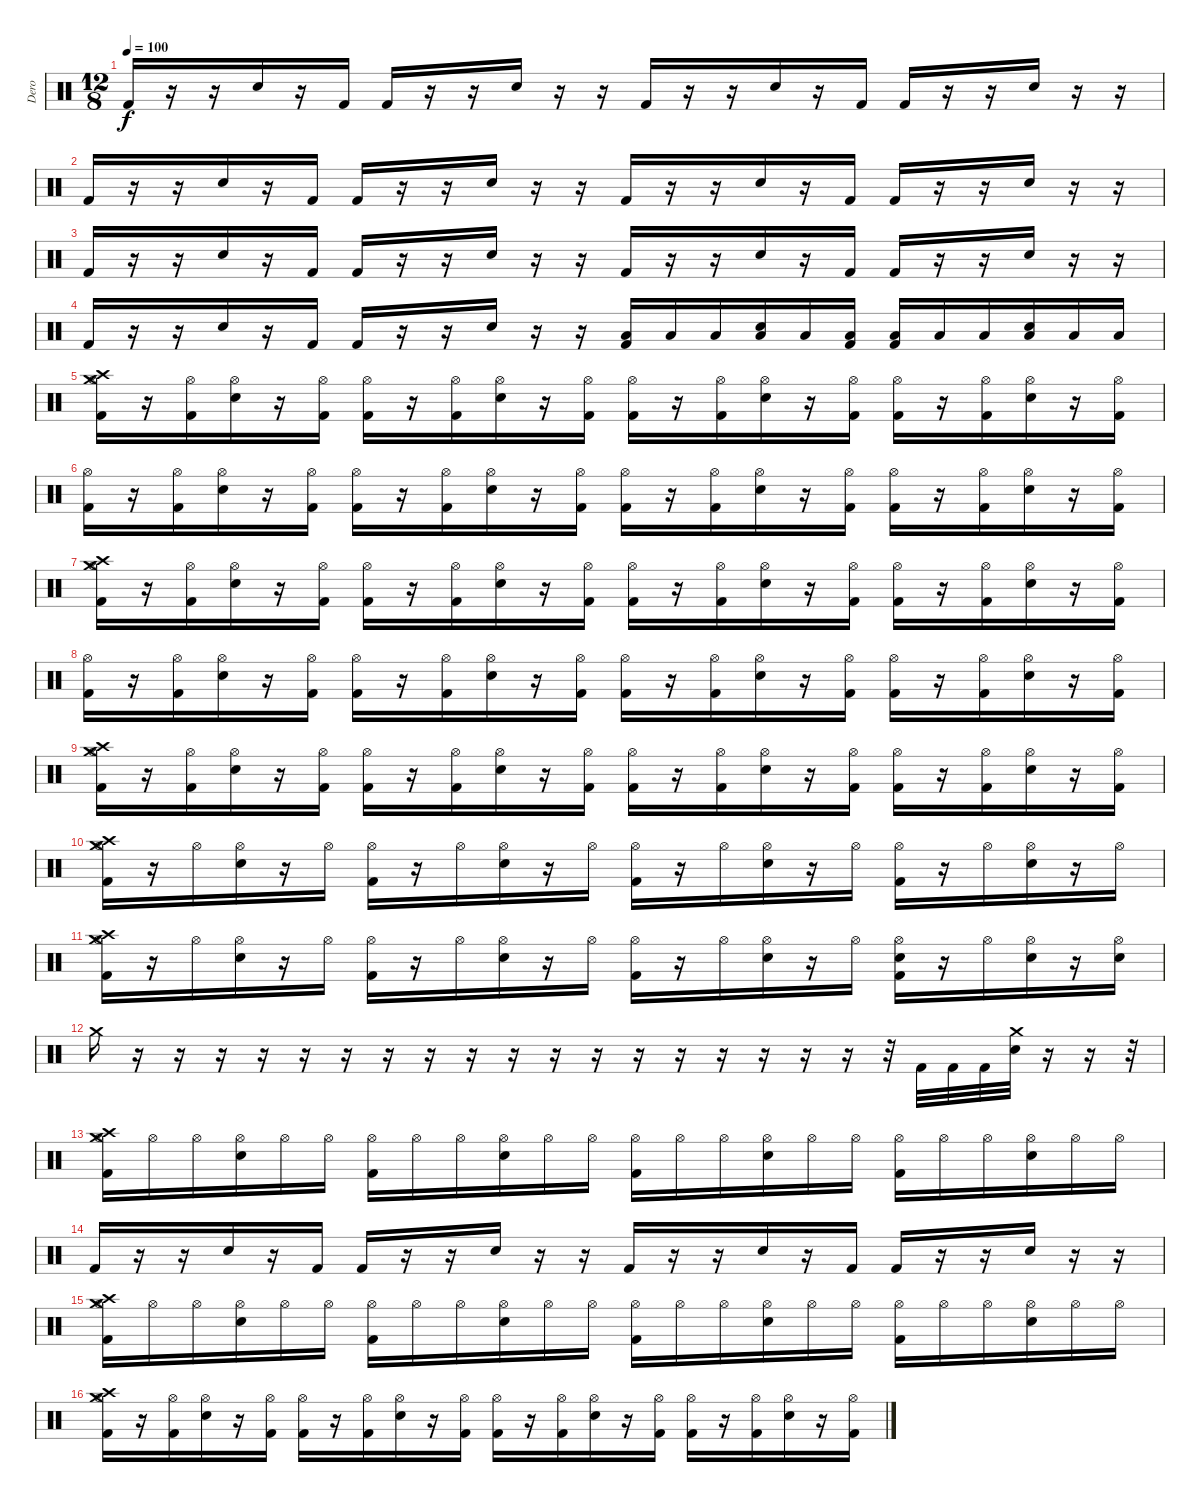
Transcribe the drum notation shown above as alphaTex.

\track ("Dero" "Dero") {instrument percussion}
\staff {score}
\articulation defaults
\ts (12 8)
\tempo 100
\clef neutral
\ks c "Kick (hit) 2".16{dy f}
r.16 r.16 "Snare (hit) 2".16 r.16 "Kick (hit) 2".16 "Kick (hit) 2".16 r.16 r.16 "Snare (hit) 2".16 r.16 r.16 "Kick (hit) 2".16 r.16 r.16 "Snare (hit) 2".16 r.16 "Kick (hit) 2".16 "Kick (hit) 2".16 r.16 r.16 "Snare (hit) 2".16 r.16 r.16 |
"Kick (hit) 2".16 r.16 r.16 "Snare (hit) 2".16 r.16 "Kick (hit) 2".16 "Kick (hit) 2".16 r.16 r.16 "Snare (hit) 2".16 r.16 r.16 "Kick (hit) 2".16 r.16 r.16 "Snare (hit) 2".16 r.16 "Kick (hit) 2".16 "Kick (hit) 2".16 r.16 r.16 "Snare (hit) 2".16 r.16 r.16 |
"Kick (hit) 2".16 r.16 r.16 "Snare (hit) 2".16 r.16 "Kick (hit) 2".16 "Kick (hit) 2".16 r.16 r.16 "Snare (hit) 2".16 r.16 r.16 "Kick (hit) 2".16 r.16 r.16 "Snare (hit) 2".16 r.16 "Kick (hit) 2".16 "Kick (hit) 2".16 r.16 r.16 "Snare (hit) 2".16 r.16 r.16 |
"Kick (hit) 2".16 r.16 r.16 "Snare (hit) 2".16 r.16 "Kick (hit) 2".16 "Kick (hit) 2".16 r.16 r.16 "Snare (hit) 2".16 r.16 r.16 ("Low Tom (hit)" "Kick (hit) 2").16 "Low Tom (hit)".16 "Low Tom (hit)".16 ("Low Tom (hit)" "Snare (hit) 2").16 "Low Tom (hit)".16 ("Low Tom (hit)" "Kick (hit) 2").16 ("Low Tom (hit)" "Kick (hit) 2").16 "Low Tom (hit)".16 "Low Tom (hit)".16 ("Low Tom (hit)" "Snare (hit) 2").16 "Low Tom (hit)".16 "Low Tom (hit)".16 |
("Crash high (hit)" "Hi-Hat (open)" "Crash medium (hit)" "Kick (hit) 2").16{volume 16} r.16 ("Hi-Hat (open)" "Kick (hit) 2").16 ("Hi-Hat (open)" "Snare (hit) 2").16 r.16 ("Hi-Hat (open)" "Kick (hit) 2").16 ("Hi-Hat (open)" "Kick (hit) 2").16 r.16 ("Hi-Hat (open)" "Kick (hit) 2").16 ("Hi-Hat (open)" "Snare (hit) 2").16 r.16 ("Hi-Hat (open)" "Kick (hit) 2").16 ("Hi-Hat (open)" "Kick (hit) 2").16 r.16 ("Hi-Hat (open)" "Kick (hit) 2").16 ("Hi-Hat (open)" "Snare (hit) 2").16 r.16 ("Hi-Hat (open)" "Kick (hit) 2").16 ("Hi-Hat (open)" "Kick (hit) 2").16 r.16 ("Hi-Hat (open)" "Kick (hit) 2").16 ("Hi-Hat (open)" "Snare (hit) 2").16 r.16 ("Hi-Hat (open)" "Kick (hit) 2").16 |
("Hi-Hat (open)" "Kick (hit) 2").16{volume 16} r.16 ("Hi-Hat (open)" "Kick (hit) 2").16 ("Hi-Hat (open)" "Snare (hit) 2").16 r.16 ("Hi-Hat (open)" "Kick (hit) 2").16 ("Hi-Hat (open)" "Kick (hit) 2").16 r.16 ("Hi-Hat (open)" "Kick (hit) 2").16 ("Hi-Hat (open)" "Snare (hit) 2").16 r.16 ("Hi-Hat (open)" "Kick (hit) 2").16 ("Hi-Hat (open)" "Kick (hit) 2").16 r.16 ("Hi-Hat (open)" "Kick (hit) 2").16 ("Hi-Hat (open)" "Snare (hit) 2").16 r.16 ("Hi-Hat (open)" "Kick (hit) 2").16 ("Hi-Hat (open)" "Kick (hit) 2").16 r.16 ("Hi-Hat (open)" "Kick (hit) 2").16 ("Hi-Hat (open)" "Snare (hit) 2").16 r.16 ("Hi-Hat (open)" "Kick (hit) 2").16 |
("Crash high (hit)" "Hi-Hat (open)" "Crash medium (hit)" "Kick (hit) 2").16{volume 16} r.16 ("Hi-Hat (open)" "Kick (hit) 2").16 ("Hi-Hat (open)" "Snare (hit) 2").16 r.16 ("Hi-Hat (open)" "Kick (hit) 2").16 ("Hi-Hat (open)" "Kick (hit) 2").16 r.16 ("Hi-Hat (open)" "Kick (hit) 2").16 ("Hi-Hat (open)" "Snare (hit) 2").16 r.16 ("Hi-Hat (open)" "Kick (hit) 2").16 ("Hi-Hat (open)" "Kick (hit) 2").16 r.16 ("Hi-Hat (open)" "Kick (hit) 2").16 ("Hi-Hat (open)" "Snare (hit) 2").16 r.16 ("Hi-Hat (open)" "Kick (hit) 2").16 ("Hi-Hat (open)" "Kick (hit) 2").16 r.16 ("Hi-Hat (open)" "Kick (hit) 2").16 ("Hi-Hat (open)" "Snare (hit) 2").16 r.16 ("Hi-Hat (open)" "Kick (hit) 2").16 |
("Hi-Hat (open)" "Kick (hit) 2").16{volume 16} r.16 ("Hi-Hat (open)" "Kick (hit) 2").16 ("Hi-Hat (open)" "Snare (hit) 2").16 r.16 ("Hi-Hat (open)" "Kick (hit) 2").16 ("Hi-Hat (open)" "Kick (hit) 2").16 r.16 ("Hi-Hat (open)" "Kick (hit) 2").16 ("Hi-Hat (open)" "Snare (hit) 2").16 r.16 ("Hi-Hat (open)" "Kick (hit) 2").16 ("Hi-Hat (open)" "Kick (hit) 2").16 r.16 ("Hi-Hat (open)" "Kick (hit) 2").16 ("Hi-Hat (open)" "Snare (hit) 2").16 r.16 ("Hi-Hat (open)" "Kick (hit) 2").16 ("Hi-Hat (open)" "Kick (hit) 2").16 r.16 ("Hi-Hat (open)" "Kick (hit) 2").16 ("Hi-Hat (open)" "Snare (hit) 2").16 r.16 ("Hi-Hat (open)" "Kick (hit) 2").16 |
("Crash high (hit)" "Hi-Hat (open)" "Crash medium (hit)" "Kick (hit) 2").16{volume 16} r.16 ("Hi-Hat (open)" "Kick (hit) 2").16 ("Hi-Hat (open)" "Snare (hit) 2").16 r.16 ("Hi-Hat (open)" "Kick (hit) 2").16 ("Hi-Hat (open)" "Kick (hit) 2").16 r.16 ("Hi-Hat (open)" "Kick (hit) 2").16 ("Hi-Hat (open)" "Snare (hit) 2").16 r.16 ("Hi-Hat (open)" "Kick (hit) 2").16 ("Hi-Hat (open)" "Kick (hit) 2").16 r.16 ("Hi-Hat (open)" "Kick (hit) 2").16 ("Hi-Hat (open)" "Snare (hit) 2").16 r.16 ("Hi-Hat (open)" "Kick (hit) 2").16 ("Hi-Hat (open)" "Kick (hit) 2").16 r.16 ("Hi-Hat (open)" "Kick (hit) 2").16 ("Hi-Hat (open)" "Snare (hit) 2").16 r.16 ("Hi-Hat (open)" "Kick (hit) 2").16 |
("Crash medium (hit)" "Crash high (hit)" "Hi-Hat (open)" "Kick (hit) 2").16 r.16 "Hi-Hat (open)".16 ("Hi-Hat (open)" "Snare (hit) 2").16 r.16 "Hi-Hat (open)".16 ("Hi-Hat (open)" "Kick (hit) 2").16 r.16 "Hi-Hat (open)".16 ("Hi-Hat (open)" "Snare (hit) 2").16 r.16 "Hi-Hat (open)".16 ("Hi-Hat (open)" "Kick (hit) 2").16 r.16 "Hi-Hat (open)".16 ("Hi-Hat (open)" "Snare (hit) 2").16 r.16 "Hi-Hat (open)".16 ("Hi-Hat (open)" "Kick (hit) 2").16 r.16 "Hi-Hat (open)".16 ("Hi-Hat (open)" "Snare (hit) 2").16 r.16 "Hi-Hat (open)".16 |
("Crash medium (hit)" "Crash high (hit)" "Hi-Hat (open)" "Kick (hit) 2").16 r.16 "Hi-Hat (open)".16 ("Hi-Hat (open)" "Snare (hit) 2").16 r.16 "Hi-Hat (open)".16 ("Hi-Hat (open)" "Kick (hit) 2").16 r.16 "Hi-Hat (open)".16 ("Hi-Hat (open)" "Snare (hit) 2").16 r.16 "Hi-Hat (open)".16 ("Hi-Hat (open)" "Kick (hit) 2").16 r.16 "Hi-Hat (open)".16 ("Hi-Hat (open)" "Snare (hit) 2").16 r.16 "Hi-Hat (open)".16 ("Hi-Hat (open)" "Snare (hit) 2" "Kick (hit) 2").16 r.16 "Hi-Hat (open)".16 ("Hi-Hat (open)" "Snare (hit) 2").16 r.16 ("Hi-Hat (open)" "Snare (hit) 2").16 |
"Crash medium (hit)".16 r.16 r.16 r.16 r.16 r.16 r.16 r.16 r.16 r.16 r.16 r.16 r.16 r.16 r.16 r.16 r.16 r.16 r.16 r.32 "Kick (hit) 2".32 "Kick (hit) 2".32 "Kick (hit) 2".32 ("Crash medium (hit)" "Snare (hit) 2").32 r.16 r.16 r.32 |
("Crash medium (hit)" "Crash high (hit)" "Hi-Hat (open)" "Kick (hit) 2").16 "Hi-Hat (open)".16 "Hi-Hat (open)".16 ("Hi-Hat (open)" "Snare (hit) 2").16 "Hi-Hat (open)".16 "Hi-Hat (open)".16 ("Hi-Hat (open)" "Kick (hit) 2").16 "Hi-Hat (open)".16 "Hi-Hat (open)".16 ("Hi-Hat (open)" "Snare (hit) 2").16 "Hi-Hat (open)".16 "Hi-Hat (open)".16 ("Hi-Hat (open)" "Kick (hit) 2").16 "Hi-Hat (open)".16 "Hi-Hat (open)".16 ("Hi-Hat (open)" "Snare (hit) 2").16 "Hi-Hat (open)".16 "Hi-Hat (open)".16 ("Hi-Hat (open)" "Kick (hit) 2").16 "Hi-Hat (open)".16 "Hi-Hat (open)".16 ("Hi-Hat (open)" "Snare (hit) 2").16 "Hi-Hat (open)".16 "Hi-Hat (open)".16 |
"Kick (hit) 2".16 r.16 r.16 "Snare (hit) 2".16 r.16 "Kick (hit) 2".16 "Kick (hit) 2".16 r.16 r.16 "Snare (hit) 2".16 r.16 r.16 "Kick (hit) 2".16 r.16 r.16 "Snare (hit) 2".16 r.16 "Kick (hit) 2".16 "Kick (hit) 2".16 r.16 r.16 "Snare (hit) 2".16 r.16 r.16 |
("Crash medium (hit)" "Crash high (hit)" "Hi-Hat (open)" "Kick (hit) 2").16 "Hi-Hat (open)".16 "Hi-Hat (open)".16 ("Hi-Hat (open)" "Snare (hit) 2").16 "Hi-Hat (open)".16 "Hi-Hat (open)".16 ("Hi-Hat (open)" "Kick (hit) 2").16 "Hi-Hat (open)".16 "Hi-Hat (open)".16 ("Hi-Hat (open)" "Snare (hit) 2").16 "Hi-Hat (open)".16 "Hi-Hat (open)".16 ("Hi-Hat (open)" "Kick (hit) 2").16 "Hi-Hat (open)".16 "Hi-Hat (open)".16 ("Hi-Hat (open)" "Snare (hit) 2").16 "Hi-Hat (open)".16 "Hi-Hat (open)".16 ("Hi-Hat (open)" "Kick (hit) 2").16 "Hi-Hat (open)".16 "Hi-Hat (open)".16 ("Hi-Hat (open)" "Snare (hit) 2").16 "Hi-Hat (open)".16 "Hi-Hat (open)".16 |
("Crash high (hit)" "Hi-Hat (open)" "Crash medium (hit)" "Kick (hit) 2").16{volume 16} r.16 ("Hi-Hat (open)" "Kick (hit) 2").16 ("Hi-Hat (open)" "Snare (hit) 2").16 r.16 ("Hi-Hat (open)" "Kick (hit) 2").16 ("Hi-Hat (open)" "Kick (hit) 2").16 r.16 ("Hi-Hat (open)" "Kick (hit) 2").16 ("Hi-Hat (open)" "Snare (hit) 2").16 r.16 ("Hi-Hat (open)" "Kick (hit) 2").16 ("Hi-Hat (open)" "Kick (hit) 2").16 r.16 ("Hi-Hat (open)" "Kick (hit) 2").16 ("Hi-Hat (open)" "Snare (hit) 2").16 r.16 ("Hi-Hat (open)" "Kick (hit) 2").16 ("Hi-Hat (open)" "Kick (hit) 2").16 r.16 ("Hi-Hat (open)" "Kick (hit) 2").16 ("Hi-Hat (open)" "Snare (hit) 2").16 r.16 ("Hi-Hat (open)" "Kick (hit) 2").16
